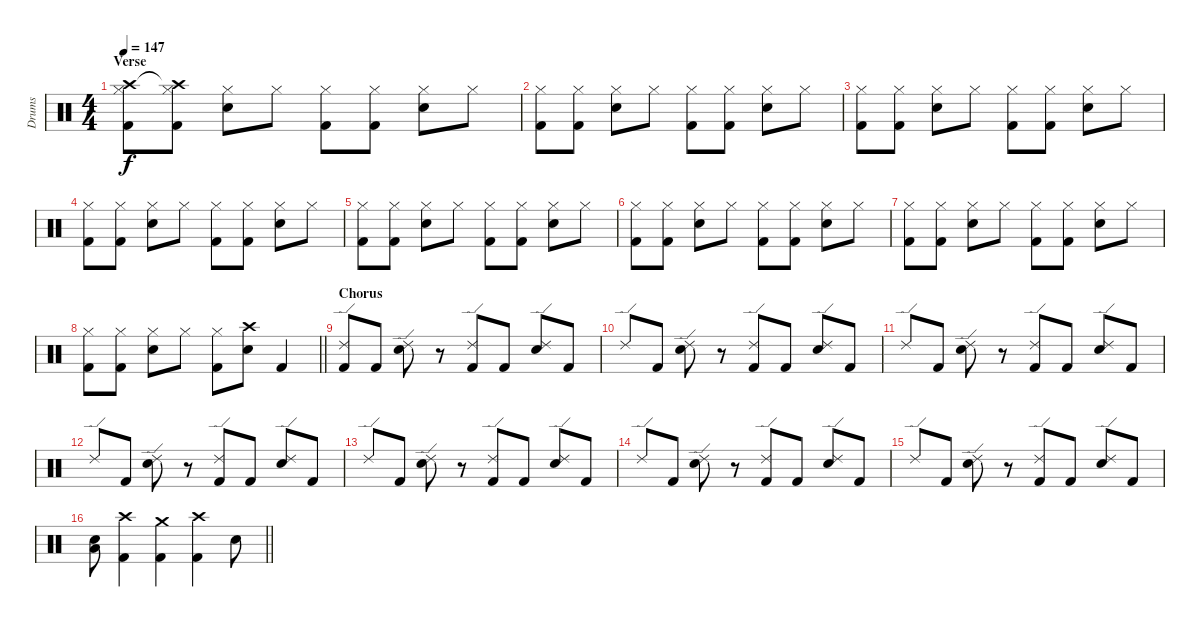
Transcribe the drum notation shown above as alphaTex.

\track ("Drums" "Drums") {instrument percussion}
\staff {score}
\articulation defaults
\ts (4 4)
\section ("" "Verse")
\tempo 147
\clef neutral
\ks c
("Crash high (hit)"{t} "Hi-Hat (closed)" "Kick (hit) 2").8{dy f} ("Crash high (hit)"{t} "Hi-Hat (closed)" "Kick (hit) 2").8 ("Hi-Hat (closed)" "Snare (hit) 2").8 "Hi-Hat (closed)".8 ("Hi-Hat (closed)" "Kick (hit) 2").8 ("Hi-Hat (closed)" "Kick (hit) 2").8 ("Hi-Hat (closed)" "Snare (hit) 2").8 "Hi-Hat (closed)".8 |
("Hi-Hat (closed)" "Kick (hit) 2").8 ("Hi-Hat (closed)" "Kick (hit) 2").8 ("Hi-Hat (closed)" "Snare (hit) 2").8 "Hi-Hat (closed)".8 ("Hi-Hat (closed)" "Kick (hit) 2").8 ("Hi-Hat (closed)" "Kick (hit) 2").8 ("Hi-Hat (closed)" "Snare (hit) 2").8 "Hi-Hat (closed)".8 |
("Hi-Hat (closed)" "Kick (hit) 2").8 ("Hi-Hat (closed)" "Kick (hit) 2").8 ("Hi-Hat (closed)" "Snare (hit) 2").8 "Hi-Hat (closed)".8 ("Hi-Hat (closed)" "Kick (hit) 2").8 ("Hi-Hat (closed)" "Kick (hit) 2").8 ("Hi-Hat (closed)" "Snare (hit) 2").8 "Hi-Hat (closed)".8 |
("Hi-Hat (closed)" "Kick (hit) 2").8 ("Hi-Hat (closed)" "Kick (hit) 2").8 ("Hi-Hat (closed)" "Snare (hit) 2").8 "Hi-Hat (closed)".8 ("Hi-Hat (closed)" "Kick (hit) 2").8 ("Hi-Hat (closed)" "Kick (hit) 2").8 ("Hi-Hat (closed)" "Snare (hit) 2").8 "Hi-Hat (closed)".8 |
("Hi-Hat (closed)" "Kick (hit) 2").8 ("Hi-Hat (closed)" "Kick (hit) 2").8 ("Hi-Hat (closed)" "Snare (hit) 2").8 "Hi-Hat (closed)".8 ("Hi-Hat (closed)" "Kick (hit) 2").8 ("Hi-Hat (closed)" "Kick (hit) 2").8 ("Hi-Hat (closed)" "Snare (hit) 2").8 "Hi-Hat (closed)".8 |
("Hi-Hat (closed)" "Kick (hit) 2").8 ("Hi-Hat (closed)" "Kick (hit) 2").8 ("Hi-Hat (closed)" "Snare (hit) 2").8 "Hi-Hat (closed)".8 ("Hi-Hat (closed)" "Kick (hit) 2").8 ("Hi-Hat (closed)" "Kick (hit) 2").8 ("Hi-Hat (closed)" "Snare (hit) 2").8 "Hi-Hat (closed)".8 |
("Hi-Hat (closed)" "Kick (hit) 2").8 ("Hi-Hat (closed)" "Kick (hit) 2").8 ("Hi-Hat (closed)" "Snare (hit) 2").8 "Hi-Hat (closed)".8 ("Hi-Hat (closed)" "Kick (hit) 2").8 ("Hi-Hat (closed)" "Kick (hit) 2").8 ("Hi-Hat (closed)" "Snare (hit) 2").8 "Hi-Hat (closed)".8 |
\barLineRight lightlight
("Hi-Hat (closed)" "Kick (hit) 2").8 ("Hi-Hat (closed)" "Kick (hit) 2").8 ("Hi-Hat (closed)" "Snare (hit) 2").8 "Hi-Hat (closed)".8 ("Hi-Hat (closed)" "Kick (hit) 2").8 ("Crash high (hit)" "Snare (hit) 2").8 "Kick (hit) 2".4 |
\section ("" "Chorus")
("Ride (edge) 2" "Kick (hit) 2").8 "Kick (hit) 2".8 ("Ride (edge) 2" "Snare (hit) 2").8 r.8 ("Ride (edge) 2" "Kick (hit) 2").8 "Kick (hit) 2".8 ("Ride (edge) 2" "Snare (hit) 2").8 "Kick (hit) 2".8 |
"Ride (edge) 2".8 "Kick (hit) 2".8 ("Ride (edge) 2" "Snare (hit) 2").8 r.8 ("Ride (edge) 2" "Kick (hit) 2").8 "Kick (hit) 2".8 ("Ride (edge) 2" "Snare (hit) 2").8 "Kick (hit) 2".8 |
"Ride (edge) 2".8 "Kick (hit) 2".8 ("Ride (edge) 2" "Snare (hit) 2").8 r.8 ("Ride (edge) 2" "Kick (hit) 2").8 "Kick (hit) 2".8 ("Ride (edge) 2" "Snare (hit) 2").8 "Kick (hit) 2".8 |
"Ride (edge) 2".8 "Kick (hit) 2".8 ("Ride (edge) 2" "Snare (hit) 2").8 r.8 ("Ride (edge) 2" "Kick (hit) 2").8 "Kick (hit) 2".8 ("Ride (edge) 2" "Snare (hit) 2").8 "Kick (hit) 2".8 |
"Ride (edge) 2".8 "Kick (hit) 2".8 ("Ride (edge) 2" "Snare (hit) 2").8 r.8 ("Ride (edge) 2" "Kick (hit) 2").8 "Kick (hit) 2".8 ("Ride (edge) 2" "Snare (hit) 2").8 "Kick (hit) 2".8 |
"Ride (edge) 2".8 "Kick (hit) 2".8 ("Ride (edge) 2" "Snare (hit) 2").8 r.8 ("Ride (edge) 2" "Kick (hit) 2").8 "Kick (hit) 2".8 ("Ride (edge) 2" "Snare (hit) 2").8 "Kick (hit) 2".8 |
"Ride (edge) 2".8 "Kick (hit) 2".8 ("Ride (edge) 2" "Snare (hit) 2").8 r.8 ("Ride (edge) 2" "Kick (hit) 2").8 "Kick (hit) 2".8 ("Ride (edge) 2" "Snare (hit) 2").8 "Kick (hit) 2".8 |
\barLineRight lightlight
("Low Tom (hit)" "Snare (hit) 2").8 ("Crash high (hit)" "Kick (hit) 2").4 ("Crash medium (hit)" "Kick (hit) 2").4 ("Crash high (hit)" "Kick (hit) 2").4 "Snare (hit) 2".8
